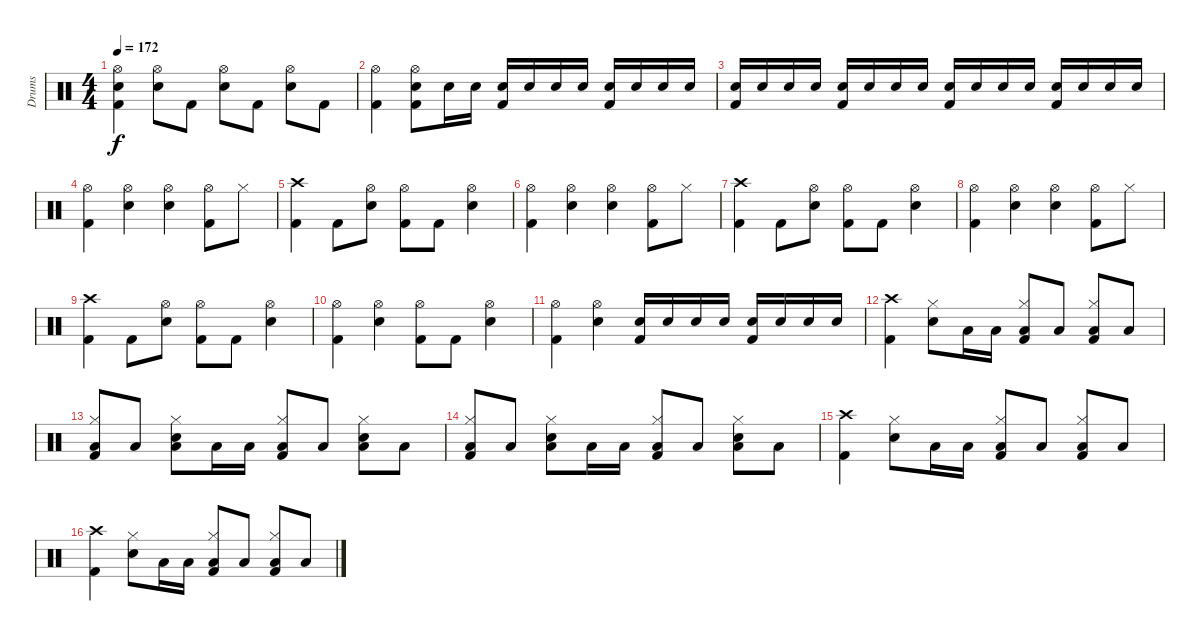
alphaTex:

\track ("Drums" "Drums") {instrument percussion}
\staff {score}
\articulation defaults
\ts (4 4)
\tempo 172
\clef neutral
\ks c
("Hi-Hat (open)" "Electric Snare (hit)" "Kick (hit) 2").4{dy f} ("Hi-Hat (open)" "Electric Snare (hit)").8 "Kick (hit) 2".8 ("Hi-Hat (open)" "Electric Snare (hit)").8 "Kick (hit) 2".8 ("Hi-Hat (open)" "Electric Snare (hit)").8 "Kick (hit) 2".8 |
("Hi-Hat (open)" "Kick (hit) 2").4 ("Hi-Hat (open)" "Electric Snare (hit)" "Kick (hit) 2").8 "Electric Snare (hit)".16 "Electric Snare (hit)".16 ("Electric Snare (hit)" "Kick (hit) 2").16 "Electric Snare (hit)".16 "Electric Snare (hit)".16 "Electric Snare (hit)".16 ("Electric Snare (hit)" "Kick (hit) 2").16 "Electric Snare (hit)".16 "Electric Snare (hit)".16 "Electric Snare (hit)".16 |
("Electric Snare (hit)" "Kick (hit) 2").16 "Electric Snare (hit)".16 "Electric Snare (hit)".16 "Electric Snare (hit)".16 ("Electric Snare (hit)" "Kick (hit) 2").16 "Electric Snare (hit)".16 "Electric Snare (hit)".16 "Electric Snare (hit)".16 ("Electric Snare (hit)" "Kick (hit) 2").16 "Electric Snare (hit)".16 "Electric Snare (hit)".16 "Electric Snare (hit)".16 ("Electric Snare (hit)" "Kick (hit) 2").16 "Electric Snare (hit)".16 "Electric Snare (hit)".16 "Electric Snare (hit)".16 |
("Hi-Hat (open)" "Kick (hit) 2").4 ("Hi-Hat (open)" "Electric Snare (hit)").4 ("Hi-Hat (open)" "Electric Snare (hit)").4 ("Hi-Hat (open)" "Kick (hit) 2").8 "Hi-Hat (closed)".8 |
("Crash high (hit)" "Kick (hit) 2").4 "Kick (hit) 2".8 ("Hi-Hat (open)" "Electric Snare (hit)").8 ("Hi-Hat (open)" "Kick (hit) 2").8 "Kick (hit) 2".8 ("Hi-Hat (open)" "Electric Snare (hit)").4 |
("Hi-Hat (open)" "Kick (hit) 2").4 ("Hi-Hat (open)" "Electric Snare (hit)").4 ("Hi-Hat (open)" "Electric Snare (hit)").4 ("Hi-Hat (open)" "Kick (hit) 2").8 "Hi-Hat (closed)".8 |
("Crash high (hit)" "Kick (hit) 2").4 "Kick (hit) 2".8 ("Hi-Hat (open)" "Electric Snare (hit)").8 ("Hi-Hat (open)" "Kick (hit) 2").8 "Kick (hit) 2".8 ("Hi-Hat (open)" "Electric Snare (hit)").4 |
("Hi-Hat (open)" "Kick (hit) 2").4 ("Hi-Hat (open)" "Electric Snare (hit)").4 ("Hi-Hat (open)" "Electric Snare (hit)").4 ("Hi-Hat (open)" "Kick (hit) 2").8 "Hi-Hat (closed)".8 |
("Crash high (hit)" "Kick (hit) 2").4 "Kick (hit) 2".8 ("Hi-Hat (open)" "Electric Snare (hit)").8 ("Hi-Hat (open)" "Kick (hit) 2").8 "Kick (hit) 2".8 ("Hi-Hat (open)" "Electric Snare (hit)").4 |
("Hi-Hat (open)" "Kick (hit) 2").4 ("Hi-Hat (open)" "Electric Snare (hit)").4 ("Hi-Hat (open)" "Kick (hit) 2").8 "Kick (hit) 2".8 ("Hi-Hat (open)" "Electric Snare (hit)").4 |
("Hi-Hat (open)" "Kick (hit) 2").4 ("Hi-Hat (open)" "Electric Snare (hit)").4 ("Electric Snare (hit)" "Kick (hit) 2").16 "Electric Snare (hit)".16 "Electric Snare (hit)".16 "Electric Snare (hit)".16 ("Electric Snare (hit)" "Kick (hit) 2").16 "Electric Snare (hit)".16 "Electric Snare (hit)".16 "Electric Snare (hit)".16 |
("Crash high (hit)" "Kick (hit) 2").4 ("Hi-Hat (closed)" "Electric Snare (hit)").8 "Low Floor Tom (hit)".16 "Low Floor Tom (hit)".16 ("Hi-Hat (closed)" "Low Floor Tom (hit)" "Kick (hit) 2").8 "Low Floor Tom (hit)".8 ("Hi-Hat (closed)" "Low Floor Tom (hit)" "Kick (hit) 2").8 "Low Floor Tom (hit)".8 |
("Hi-Hat (closed)" "Low Floor Tom (hit)" "Kick (hit) 2").8 "Low Floor Tom (hit)".8 ("Hi-Hat (closed)" "Electric Snare (hit)" "Low Floor Tom (hit)").8 "Low Floor Tom (hit)".16 "Low Floor Tom (hit)".16 ("Hi-Hat (closed)" "Low Floor Tom (hit)" "Kick (hit) 2").8 "Low Floor Tom (hit)".8 ("Hi-Hat (closed)" "Electric Snare (hit)" "Low Floor Tom (hit)").8 "Low Floor Tom (hit)".8 |
("Hi-Hat (closed)" "Low Floor Tom (hit)" "Kick (hit) 2").8 "Low Floor Tom (hit)".8 ("Hi-Hat (closed)" "Electric Snare (hit)" "Low Floor Tom (hit)").8 "Low Floor Tom (hit)".16 "Low Floor Tom (hit)".16 ("Hi-Hat (closed)" "Low Floor Tom (hit)" "Kick (hit) 2").8 "Low Floor Tom (hit)".8 ("Hi-Hat (closed)" "Electric Snare (hit)" "Low Floor Tom (hit)").8 "Low Floor Tom (hit)".8 |
("Crash high (hit)" "Kick (hit) 2").4 ("Hi-Hat (closed)" "Electric Snare (hit)").8 "Low Floor Tom (hit)".16 "Low Floor Tom (hit)".16 ("Hi-Hat (closed)" "Low Floor Tom (hit)" "Kick (hit) 2").8 "Low Floor Tom (hit)".8 ("Hi-Hat (closed)" "Low Floor Tom (hit)" "Kick (hit) 2").8 "Low Floor Tom (hit)".8 |
("Crash high (hit)" "Kick (hit) 2").4 ("Hi-Hat (closed)" "Electric Snare (hit)").8 "Low Floor Tom (hit)".16 "Low Floor Tom (hit)".16 ("Hi-Hat (closed)" "Low Floor Tom (hit)" "Kick (hit) 2").8 "Low Floor Tom (hit)".8 ("Hi-Hat (closed)" "Low Floor Tom (hit)" "Kick (hit) 2").8 "Low Floor Tom (hit)".8
